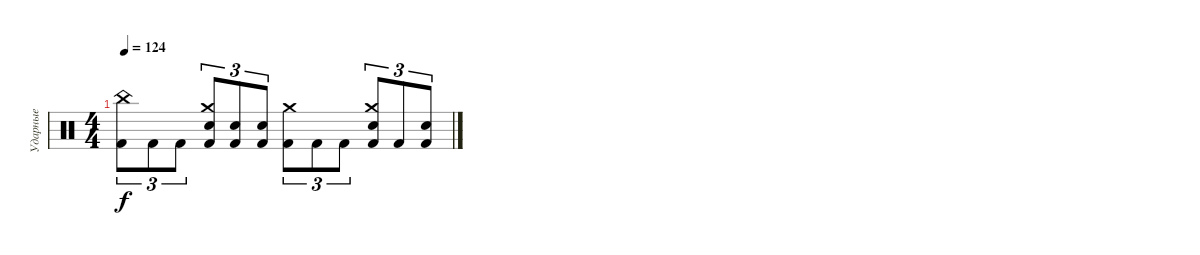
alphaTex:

\track ("Ударные" "Ударные") {instrument percussion}
\staff {score}
\articulation defaults
\ts (4 4)
\tempo 124
\clef neutral
\ks c
("China (hit)" "Kick (hit) 2").8{tu (3 2) dy f} "Kick (hit) 2".8{tu (3 2)} "Kick (hit) 2".8{tu (3 2)} ("Crash medium (hit)" "Snare (hit) 2" "Kick (hit) 2").8{tu (3 2)} ("Snare (hit) 2" "Kick (hit) 2").8{tu (3 2)} ("Snare (hit) 2" "Kick (hit) 2").8{tu (3 2)} ("Crash medium (hit)" "Kick (hit) 2").8{tu (3 2)} "Kick (hit) 2".8{tu (3 2)} "Kick (hit) 2".8{tu (3 2)} ("Crash medium (hit)" "Snare (hit) 2" "Kick (hit) 2").8{tu (3 2)} "Kick (hit) 2".8{tu (3 2)} ("Snare (hit) 2" "Kick (hit) 2").8{tu (3 2)}
